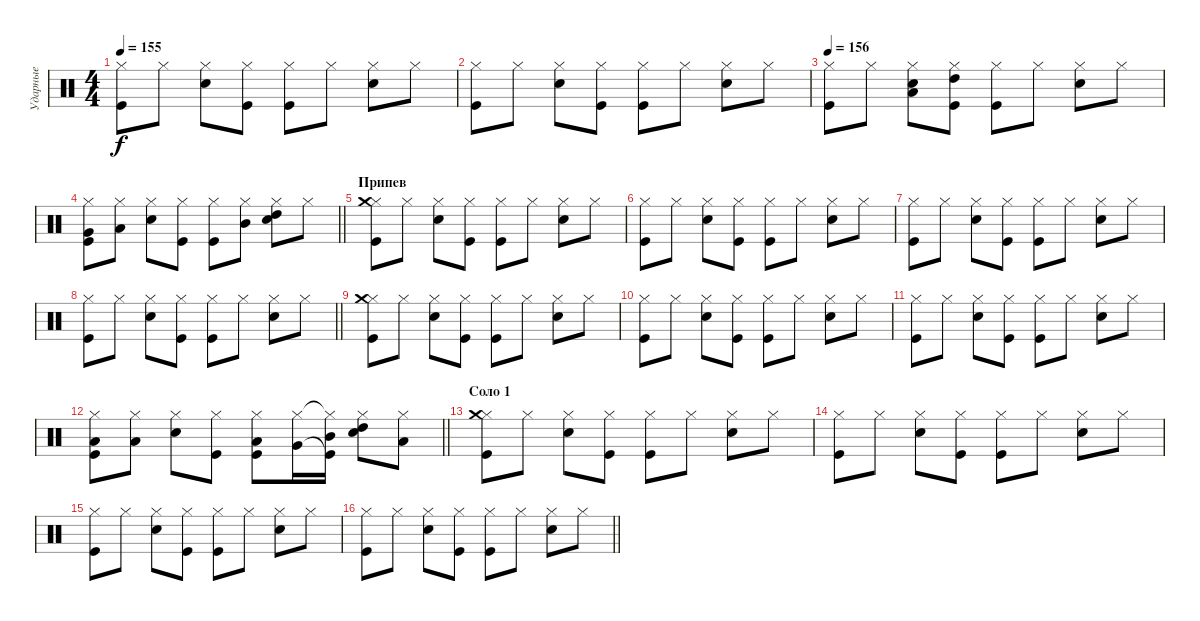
\track ("Ударные" "Ударные") {instrument percussion}
\staff {score}
\articulation defaults
\ts (4 4)
\tempo 155
\clef neutral
\ks c
("Hi-Hat (closed)" "Kick (hit)").8{dy f} "Hi-Hat (closed)".8 ("Hi-Hat (closed)" "Snare (hit) 2").8 ("Hi-Hat (closed)" "Kick (hit)").8 ("Hi-Hat (closed)" "Kick (hit)").8 "Hi-Hat (closed)".8 ("Hi-Hat (closed)" "Snare (hit) 2").8 "Hi-Hat (closed)".8 |
("Hi-Hat (closed)" "Kick (hit)").8 "Hi-Hat (closed)".8 ("Hi-Hat (closed)" "Snare (hit) 2").8 ("Hi-Hat (closed)" "Kick (hit)").8 ("Hi-Hat (closed)" "Kick (hit)").8 "Hi-Hat (closed)".8 ("Hi-Hat (closed)" "Snare (hit) 2").8 "Hi-Hat (closed)".8 |
\tempo 156
("Hi-Hat (closed)" "Kick (hit)").8 "Hi-Hat (closed)".8 ("Hi-Hat (closed)" "Snare (hit) 2" "Low Tom (hit)").8 ("Hi-Hat (closed)" "Kick (hit)" "High Tom (hit)").8 ("Hi-Hat (closed)" "Kick (hit)").8 "Hi-Hat (closed)".8 ("Hi-Hat (closed)" "Snare (hit) 2").8 "Hi-Hat (closed)".8 |
\barLineRight lightlight
("Hi-Hat (closed)" "Kick (hit)" "Very Low Tom (hit)").8 ("Hi-Hat (closed)" "Low Tom (hit)").8 ("Hi-Hat (closed)" "Snare (hit) 2").8 ("Hi-Hat (closed)" "Kick (hit)").8 ("Hi-Hat (closed)" "Kick (hit)").8 ("Hi-Hat (closed)" "Mid Tom (hit)").8 ("Hi-Hat (closed)" "Snare (hit) 2" "High Tom (hit)").8 "Hi-Hat (closed)".8 |
\section ("" "Припев")
("Hi-Hat (closed)" "Kick (hit)" "Crash medium (hit)").8 "Hi-Hat (closed)".8 ("Hi-Hat (closed)" "Snare (hit) 2").8 ("Hi-Hat (closed)" "Kick (hit)").8 ("Hi-Hat (closed)" "Kick (hit)").8 "Hi-Hat (closed)".8 ("Hi-Hat (closed)" "Snare (hit) 2").8 "Hi-Hat (closed)".8 |
("Hi-Hat (closed)" "Kick (hit)").8 "Hi-Hat (closed)".8 ("Hi-Hat (closed)" "Snare (hit) 2").8 ("Hi-Hat (closed)" "Kick (hit)").8 ("Hi-Hat (closed)" "Kick (hit)").8 "Hi-Hat (closed)".8 ("Hi-Hat (closed)" "Snare (hit) 2").8 "Hi-Hat (closed)".8 |
("Hi-Hat (closed)" "Kick (hit)").8 "Hi-Hat (closed)".8 ("Hi-Hat (closed)" "Snare (hit) 2").8 ("Hi-Hat (closed)" "Kick (hit)").8 ("Hi-Hat (closed)" "Kick (hit)").8 "Hi-Hat (closed)".8 ("Hi-Hat (closed)" "Snare (hit) 2").8 "Hi-Hat (closed)".8 |
\barLineRight lightlight
("Hi-Hat (closed)" "Kick (hit)").8 "Hi-Hat (closed)".8 ("Hi-Hat (closed)" "Snare (hit) 2").8 ("Hi-Hat (closed)" "Kick (hit)").8 ("Hi-Hat (closed)" "Kick (hit)").8 "Hi-Hat (closed)".8 ("Hi-Hat (closed)" "Snare (hit) 2").8 "Hi-Hat (closed)".8 |
("Hi-Hat (closed)" "Kick (hit)" "Crash medium (hit)").8 "Hi-Hat (closed)".8 ("Hi-Hat (closed)" "Snare (hit) 2").8 ("Hi-Hat (closed)" "Kick (hit)").8 ("Hi-Hat (closed)" "Kick (hit)").8 "Hi-Hat (closed)".8 ("Hi-Hat (closed)" "Snare (hit) 2").8 "Hi-Hat (closed)".8 |
("Hi-Hat (closed)" "Kick (hit)").8 "Hi-Hat (closed)".8 ("Hi-Hat (closed)" "Snare (hit) 2").8 ("Hi-Hat (closed)" "Kick (hit)").8 ("Hi-Hat (closed)" "Kick (hit)").8 "Hi-Hat (closed)".8 ("Hi-Hat (closed)" "Snare (hit) 2").8 "Hi-Hat (closed)".8 |
("Hi-Hat (closed)" "Kick (hit)").8 "Hi-Hat (closed)".8 ("Hi-Hat (closed)" "Snare (hit) 2").8 ("Hi-Hat (closed)" "Kick (hit)").8 ("Hi-Hat (closed)" "Kick (hit)").8 "Hi-Hat (closed)".8 ("Hi-Hat (closed)" "Snare (hit) 2").8 "Hi-Hat (closed)".8 |
\barLineRight lightlight
("Hi-Hat (closed)" "Kick (hit)" "Low Tom (hit)").8 ("Hi-Hat (closed)" "Low Tom (hit)").8 ("Hi-Hat (closed)" "Snare (hit) 2").8 ("Hi-Hat (closed)" "Kick (hit)").8 ("Hi-Hat (closed)" "Kick (hit)" "Low Tom (hit)").8 ("Hi-Hat (closed)" "Very Low Tom (hit)").16 ("Hi-Hat (closed)"{t} "Kick (hit)"{t} "Mid Tom (hit)").16 ("Hi-Hat (closed)" "Snare (hit) 2" "High Tom (hit)").8 ("Hi-Hat (closed)" "Low Tom (hit)").8 |
\section ("" "Соло 1")
("Hi-Hat (closed)" "Kick (hit)" "Crash medium (hit)").8 "Hi-Hat (closed)".8 ("Hi-Hat (closed)" "Snare (hit) 2").8 ("Hi-Hat (closed)" "Kick (hit)").8 ("Hi-Hat (closed)" "Kick (hit)").8 "Hi-Hat (closed)".8 ("Hi-Hat (closed)" "Snare (hit) 2").8 "Hi-Hat (closed)".8 |
("Hi-Hat (closed)" "Kick (hit)").8 "Hi-Hat (closed)".8 ("Hi-Hat (closed)" "Snare (hit) 2").8 ("Hi-Hat (closed)" "Kick (hit)").8 ("Hi-Hat (closed)" "Kick (hit)").8 "Hi-Hat (closed)".8 ("Hi-Hat (closed)" "Snare (hit) 2").8 "Hi-Hat (closed)".8 |
("Hi-Hat (closed)" "Kick (hit)").8 "Hi-Hat (closed)".8 ("Hi-Hat (closed)" "Snare (hit) 2").8 ("Hi-Hat (closed)" "Kick (hit)").8 ("Hi-Hat (closed)" "Kick (hit)").8 "Hi-Hat (closed)".8 ("Hi-Hat (closed)" "Snare (hit) 2").8 "Hi-Hat (closed)".8 |
\barLineRight lightlight
("Hi-Hat (closed)" "Kick (hit)").8 "Hi-Hat (closed)".8 ("Hi-Hat (closed)" "Snare (hit) 2").8 ("Hi-Hat (closed)" "Kick (hit)").8 ("Hi-Hat (closed)" "Kick (hit)").8 "Hi-Hat (closed)".8 ("Hi-Hat (closed)" "Snare (hit) 2").8 "Hi-Hat (closed)".8
